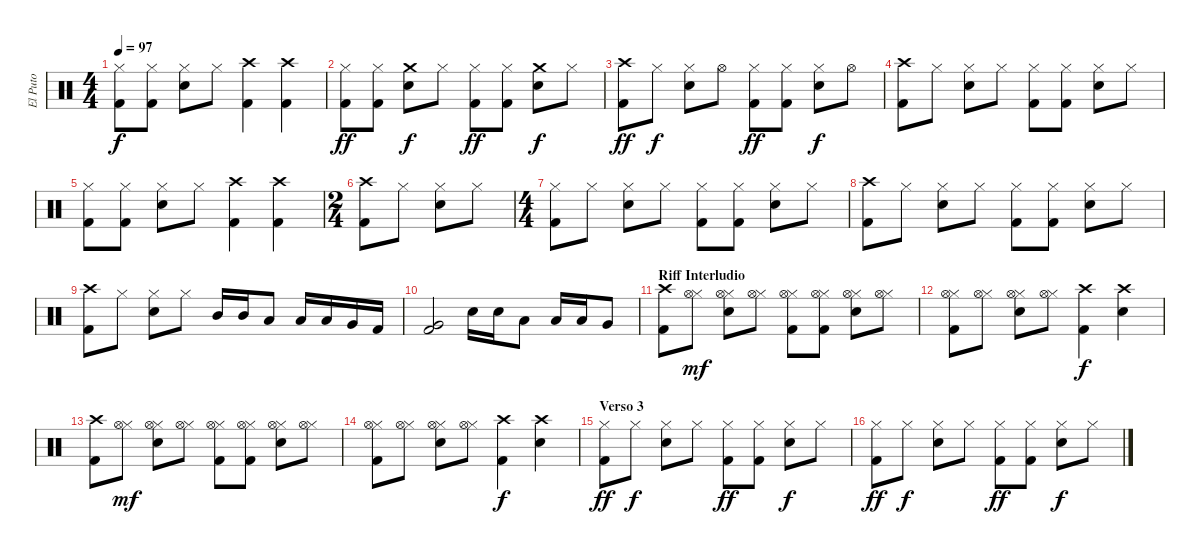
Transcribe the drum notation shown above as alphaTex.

\track ("El Puto" "El Puto") {instrument percussion}
\staff {score}
\articulation defaults
\ts (4 4)
\tempo 97
\clef neutral
\ks c
("Hi-Hat (closed)" "Kick (hit) 2").8{dy f} ("Hi-Hat (closed)" "Kick (hit) 2").8 ("Hi-Hat (closed)" "Snare (hit) 2").8 "Hi-Hat (closed)".8 ("Crash high (hit)" "Kick (hit) 2").4 ("Crash high (hit)" "Kick (hit) 2").4 |
("Hi-Hat (closed)" "Kick (hit) 2").8{dy ff} ("Hi-Hat (closed)" "Kick (hit) 2").8 ("Crash medium (hit)" "Snare (hit) 2").8{dy f} "Hi-Hat (closed)".8 ("Hi-Hat (closed)" "Kick (hit) 2").8{dy ff} ("Hi-Hat (closed)" "Kick (hit) 2").8 ("Crash medium (hit)" "Snare (hit) 2").8{dy f} "Hi-Hat (closed)".8 |
("Crash high (hit)" "Kick (hit) 2").8{dy ff} "Hi-Hat (closed)".8{dy f} ("Hi-Hat (closed)" "Snare (hit) 2").8 "Hi-Hat (open)".8 ("Hi-Hat (closed)" "Kick (hit) 2").8{dy ff} ("Hi-Hat (closed)" "Kick (hit) 2").8 ("Hi-Hat (closed)" "Snare (hit) 2").8{dy f} "Hi-Hat (open)".8 |
("Crash high (hit)" "Kick (hit) 2").8 "Hi-Hat (closed)".8 ("Hi-Hat (closed)" "Snare (hit) 2").8 "Hi-Hat (closed)".8 ("Hi-Hat (closed)" "Kick (hit) 2").8 ("Hi-Hat (closed)" "Kick (hit) 2").8 ("Hi-Hat (closed)" "Snare (hit) 2").8 "Hi-Hat (closed)".8 |
("Hi-Hat (closed)" "Kick (hit) 2").8 ("Hi-Hat (closed)" "Kick (hit) 2").8 ("Hi-Hat (closed)" "Snare (hit) 2").8 "Hi-Hat (closed)".8 ("Crash high (hit)" "Kick (hit) 2").4 ("Crash high (hit)" "Kick (hit) 2").4 |
\ts (2 4)
("Crash high (hit)" "Kick (hit) 2").8 "Hi-Hat (closed)".8 ("Hi-Hat (closed)" "Snare (hit) 2").8 "Hi-Hat (closed)".8 |
\ts (4 4)
("Hi-Hat (closed)" "Kick (hit) 2").8 "Hi-Hat (closed)".8 ("Hi-Hat (closed)" "Snare (hit) 2").8 "Hi-Hat (closed)".8 ("Hi-Hat (closed)" "Kick (hit) 2").8 ("Hi-Hat (closed)" "Kick (hit) 2").8 ("Hi-Hat (closed)" "Snare (hit) 2").8 "Hi-Hat (closed)".8 |
("Crash high (hit)" "Kick (hit) 2").8 "Hi-Hat (closed)".8 ("Hi-Hat (closed)" "Snare (hit) 2").8 "Hi-Hat (closed)".8 ("Hi-Hat (closed)" "Kick (hit) 2").8 ("Hi-Hat (closed)" "Kick (hit) 2").8 ("Hi-Hat (closed)" "Snare (hit) 2").8 "Hi-Hat (closed)".8 |
("Crash high (hit)" "Kick (hit) 2").8 "Hi-Hat (closed)".8 ("Hi-Hat (closed)" "Snare (hit) 2").8 "Hi-Hat (closed)".8 "Mid Tom (hit)".16 "Mid Tom (hit)".16 "Low Tom (hit)".8 "Low Tom (hit)".16 "Low Tom (hit)".16 "Very Low Tom (hit)".16 "Kick (hit) 2".16 |
("Very Low Tom (hit)" "Kick (hit) 2").2 "Snare (hit) 2".16 "Snare (hit) 2".16 "Low Tom (hit)".8 "Low Tom (hit)".16 "Low Tom (hit)".16 "Very Low Tom (hit)".8 |
\section ("" "Riff Interludio")
("Crash high (hit)" "Kick (hit) 2").8 ("Hi-Hat (closed)" "Hi-Hat (open)").8{dy mf} ("Hi-Hat (closed)" "Hi-Hat (open)" "Snare (hit) 2").8 ("Hi-Hat (closed)" "Hi-Hat (open)").8 ("Hi-Hat (closed)" "Hi-Hat (open)" "Kick (hit) 2").8 ("Hi-Hat (closed)" "Hi-Hat (open)" "Kick (hit) 2").8 ("Hi-Hat (closed)" "Hi-Hat (open)" "Snare (hit) 2").8 ("Hi-Hat (closed)" "Hi-Hat (open)").8 |
("Hi-Hat (closed)" "Hi-Hat (open)" "Kick (hit) 2").8 ("Hi-Hat (closed)" "Hi-Hat (open)").8 ("Hi-Hat (closed)" "Hi-Hat (open)" "Snare (hit) 2").8 ("Hi-Hat (closed)" "Hi-Hat (open)").8 ("Crash high (hit)" "Kick (hit) 2").4{dy f} ("Crash high (hit)" "Snare (hit) 2").4 |
("Crash high (hit)" "Kick (hit) 2").8 ("Hi-Hat (closed)" "Hi-Hat (open)").8{dy mf} ("Hi-Hat (closed)" "Hi-Hat (open)" "Snare (hit) 2").8 ("Hi-Hat (closed)" "Hi-Hat (open)").8 ("Hi-Hat (closed)" "Hi-Hat (open)" "Kick (hit) 2").8 ("Hi-Hat (closed)" "Hi-Hat (open)" "Kick (hit) 2").8 ("Hi-Hat (closed)" "Hi-Hat (open)" "Snare (hit) 2").8 ("Hi-Hat (closed)" "Hi-Hat (open)").8 |
("Hi-Hat (closed)" "Hi-Hat (open)" "Kick (hit) 2").8 ("Hi-Hat (closed)" "Hi-Hat (open)").8 ("Hi-Hat (closed)" "Hi-Hat (open)" "Snare (hit) 2").8 ("Hi-Hat (closed)" "Hi-Hat (open)").8 ("Crash high (hit)" "Kick (hit) 2").4{dy f} ("Crash high (hit)" "Snare (hit) 2").4 |
\section ("" "Verso 3")
("Hi-Hat (closed)" "Kick (hit) 2").8{dy ff} "Hi-Hat (closed)".8{dy f} ("Hi-Hat (closed)" "Snare (hit) 2").8 "Hi-Hat (closed)".8 ("Hi-Hat (closed)" "Kick (hit) 2").8{dy ff} ("Hi-Hat (closed)" "Kick (hit) 2").8 ("Hi-Hat (closed)" "Snare (hit) 2").8{dy f} "Hi-Hat (closed)".8 |
("Hi-Hat (closed)" "Kick (hit) 2").8{dy ff} "Hi-Hat (closed)".8{dy f} ("Hi-Hat (closed)" "Snare (hit) 2").8 "Hi-Hat (closed)".8 ("Hi-Hat (closed)" "Kick (hit) 2").8{dy ff} ("Hi-Hat (closed)" "Kick (hit) 2").8 ("Hi-Hat (closed)" "Snare (hit) 2").8{dy f} "Hi-Hat (closed)".8
